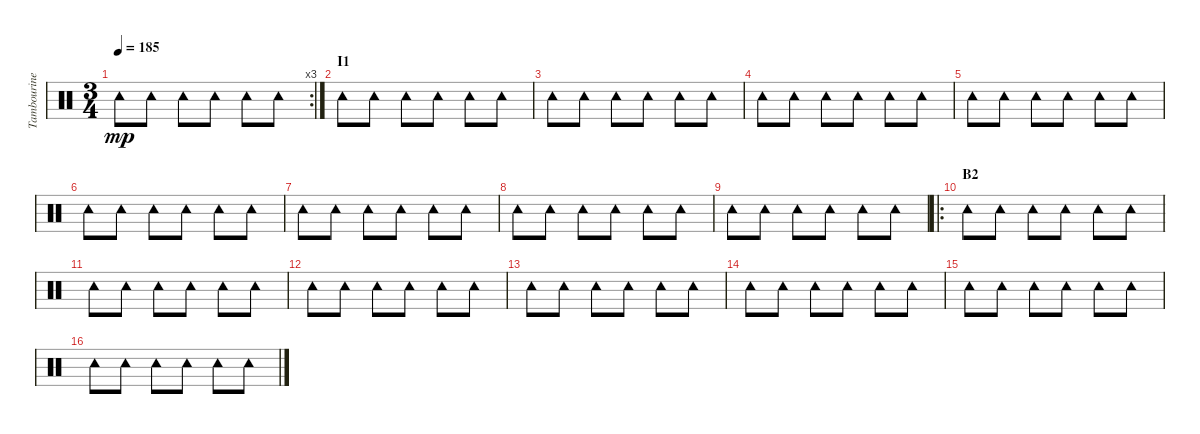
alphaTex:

\track ("Tambourine" "Tambourine") {instrument percussion}
\staff {score}
\articulation defaults
\rc 3
\ts (3 4)
\tempo 185
\clef neutral
\ks c "Tambourine (hit)".8{dy mp} "Tambourine (hit)".8 "Tambourine (hit)".8 "Tambourine (hit)".8 "Tambourine (hit)".8 "Tambourine (hit)".8
|
\section ("" "I1")
"Tambourine (hit)".8 "Tambourine (hit)".8 "Tambourine (hit)".8 "Tambourine (hit)".8 "Tambourine (hit)".8 "Tambourine (hit)".8 |
"Tambourine (hit)".8 "Tambourine (hit)".8 "Tambourine (hit)".8 "Tambourine (hit)".8 "Tambourine (hit)".8 "Tambourine (hit)".8 |
"Tambourine (hit)".8 "Tambourine (hit)".8 "Tambourine (hit)".8 "Tambourine (hit)".8 "Tambourine (hit)".8 "Tambourine (hit)".8 |
"Tambourine (hit)".8 "Tambourine (hit)".8 "Tambourine (hit)".8 "Tambourine (hit)".8 "Tambourine (hit)".8 "Tambourine (hit)".8 |
"Tambourine (hit)".8 "Tambourine (hit)".8 "Tambourine (hit)".8 "Tambourine (hit)".8 "Tambourine (hit)".8 "Tambourine (hit)".8 |
"Tambourine (hit)".8 "Tambourine (hit)".8 "Tambourine (hit)".8 "Tambourine (hit)".8 "Tambourine (hit)".8 "Tambourine (hit)".8 |
"Tambourine (hit)".8 "Tambourine (hit)".8 "Tambourine (hit)".8 "Tambourine (hit)".8 "Tambourine (hit)".8 "Tambourine (hit)".8 |
"Tambourine (hit)".8 "Tambourine (hit)".8 "Tambourine (hit)".8 "Tambourine (hit)".8 "Tambourine (hit)".8 "Tambourine (hit)".8 |
\ro
\section ("" "B2")
"Tambourine (hit)".8 "Tambourine (hit)".8 "Tambourine (hit)".8 "Tambourine (hit)".8 "Tambourine (hit)".8 "Tambourine (hit)".8 |
"Tambourine (hit)".8 "Tambourine (hit)".8 "Tambourine (hit)".8 "Tambourine (hit)".8 "Tambourine (hit)".8 "Tambourine (hit)".8 |
"Tambourine (hit)".8 "Tambourine (hit)".8 "Tambourine (hit)".8 "Tambourine (hit)".8 "Tambourine (hit)".8 "Tambourine (hit)".8 |
"Tambourine (hit)".8 "Tambourine (hit)".8 "Tambourine (hit)".8 "Tambourine (hit)".8 "Tambourine (hit)".8 "Tambourine (hit)".8 |
"Tambourine (hit)".8 "Tambourine (hit)".8 "Tambourine (hit)".8 "Tambourine (hit)".8 "Tambourine (hit)".8 "Tambourine (hit)".8 |
"Tambourine (hit)".8 "Tambourine (hit)".8 "Tambourine (hit)".8 "Tambourine (hit)".8 "Tambourine (hit)".8 "Tambourine (hit)".8 |
"Tambourine (hit)".8 "Tambourine (hit)".8 "Tambourine (hit)".8 "Tambourine (hit)".8 "Tambourine (hit)".8 "Tambourine (hit)".8
